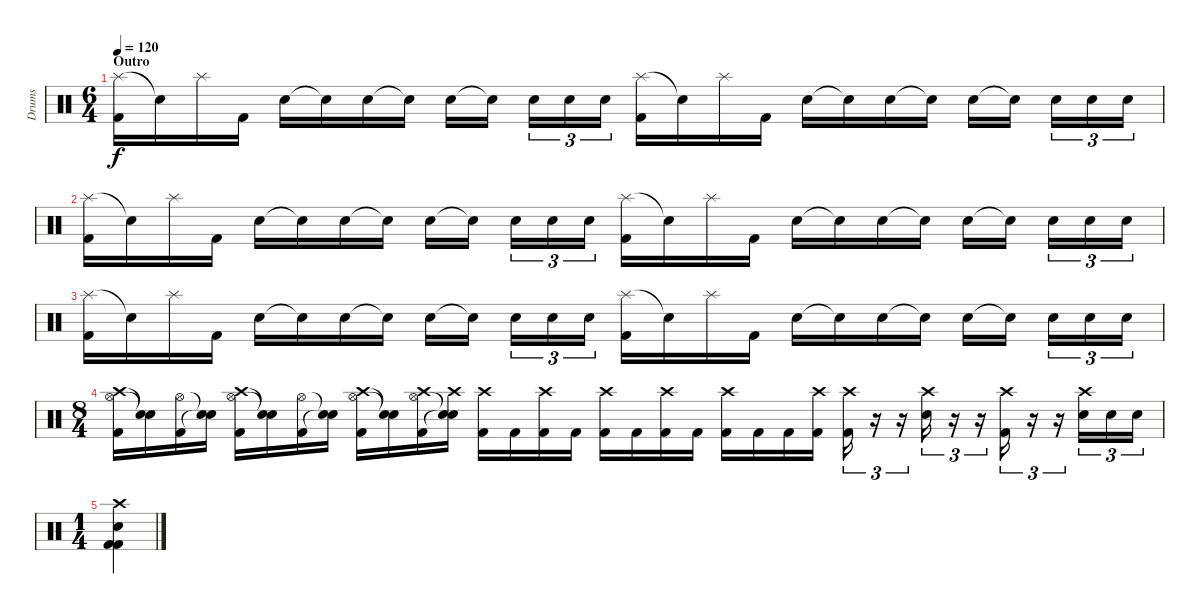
\track ("Drums" "Drums") {instrument percussion}
\staff {score}
\articulation defaults
\ts (6 4)
\section ("" "Outro")
\tempo 120
\clef neutral
\ks c
("Splash (hit)" "Kick (hit) 2").16{dy f} "Snare (hit)"{t}.16 "Splash (hit)".16 "Kick (hit) 2".16 "Electric Snare (hit)".16 "Snare (hit)"{t}.16 "Electric Snare (hit)".16 "Snare (hit)"{t}.16 "Electric Snare (hit)".16 "Snare (hit)"{t}.16 "Electric Snare (hit)".16{tu (3 2)} "Electric Snare (hit)".16{tu (3 2)} "Electric Snare (hit)".16{tu (3 2)} ("Splash (hit)" "Kick (hit) 2").16 "Snare (hit)"{t}.16 "Splash (hit)".16 "Kick (hit) 2".16 "Electric Snare (hit)".16 "Snare (hit)"{t}.16 "Electric Snare (hit)".16 "Snare (hit)"{t}.16 "Electric Snare (hit)".16 "Snare (hit)"{t}.16 "Electric Snare (hit)".16{tu (3 2)} "Electric Snare (hit)".16{tu (3 2)} "Electric Snare (hit)".16{tu (3 2)} |
("Splash (hit)" "Kick (hit) 2").16 "Snare (hit)"{t}.16 "Splash (hit)".16 "Kick (hit) 2".16 "Electric Snare (hit)".16 "Snare (hit)"{t}.16 "Electric Snare (hit)".16 "Snare (hit)"{t}.16 "Electric Snare (hit)".16 "Snare (hit)"{t}.16 "Electric Snare (hit)".16{tu (3 2)} "Electric Snare (hit)".16{tu (3 2)} "Electric Snare (hit)".16{tu (3 2)} ("Splash (hit)" "Kick (hit) 2").16 "Snare (hit)"{t}.16 "Splash (hit)".16 "Kick (hit) 2".16 "Electric Snare (hit)".16 "Snare (hit)"{t}.16 "Electric Snare (hit)".16 "Snare (hit)"{t}.16 "Electric Snare (hit)".16 "Snare (hit)"{t}.16 "Electric Snare (hit)".16{tu (3 2)} "Electric Snare (hit)".16{tu (3 2)} "Electric Snare (hit)".16{tu (3 2)} |
("Splash (hit)" "Kick (hit) 2").16 "Snare (hit)"{t}.16 "Splash (hit)".16 "Kick (hit) 2".16 "Electric Snare (hit)".16 "Snare (hit)"{t}.16 "Electric Snare (hit)".16 "Snare (hit)"{t}.16 "Electric Snare (hit)".16 "Snare (hit)"{t}.16 "Electric Snare (hit)".16{tu (3 2)} "Electric Snare (hit)".16{tu (3 2)} "Electric Snare (hit)".16{tu (3 2)} ("Splash (hit)" "Kick (hit) 2").16 "Snare (hit)"{t}.16 "Splash (hit)".16 "Kick (hit) 2".16 "Electric Snare (hit)".16 "Snare (hit)"{t}.16 "Electric Snare (hit)".16 "Snare (hit)"{t}.16 "Electric Snare (hit)".16 "Snare (hit)"{t}.16 "Electric Snare (hit)".16{tu (3 2)} "Electric Snare (hit)".16{tu (3 2)} "Electric Snare (hit)".16{tu (3 2)} |
\ts (8 4)
("Crash high (hit)" "Hi-Hat (open)" "Kick (hit) 2").16 ("Snare (hit)"{t} "Snare (hit)"{t}).16 ("Hi-Hat (open)" "Kick (hit) 2").16 ("Snare (hit)"{t} "Snare (hit)"{t}).16 ("Crash high (hit)" "Hi-Hat (open)" "Kick (hit) 2").16 ("Snare (hit)"{t} "Snare (hit)"{t}).16 ("Hi-Hat (open)" "Kick (hit) 2").16 ("Snare (hit)"{t} "Snare (hit)"{t}).16 ("Crash high (hit)" "Hi-Hat (open)" "Kick (hit) 2").16 ("Snare (hit)"{t} "Snare (hit)"{t}).16 ("Crash high (hit)" "Hi-Hat (open)" "Kick (hit) 2").16 ("Crash high (hit)" "Snare (hit)"{t} "Snare (hit)"{t}).16 ("Crash high (hit)" "Kick (hit) 2").16 "Kick (hit) 2".16 ("Crash high (hit)" "Kick (hit) 2").16 "Kick (hit) 2".16 ("Crash high (hit)" "Kick (hit) 2").16 "Kick (hit) 2".16 ("Crash high (hit)" "Kick (hit) 2").16 "Kick (hit) 2".16 ("Crash high (hit)" "Kick (hit) 2").16 "Kick (hit) 2".16 "Kick (hit) 2".16 ("Crash high (hit)" "Kick (hit) 2").16 ("Crash high (hit)" "Kick (hit) 2").16{tu (3 2)} r.16{tu (3 2)} r.16{tu (3 2)} ("Crash high (hit)" "Electric Snare (hit)").16{tu (3 2)} r.16{tu (3 2)} r.16{tu (3 2)} ("Crash high (hit)" "Kick (hit) 2").16{tu (3 2)} r.16{tu (3 2)} r.16{tu (3 2)} ("Crash high (hit)" "Electric Snare (hit)").16{tu (3 2)} "Electric Snare (hit)".16{tu (3 2)} "Electric Snare (hit)".16{tu (3 2)} |
\ts (1 4)
("Crash high (hit)" "Electric Snare (hit)" "Kick (hit) 2" "Kick (hit) 2").4
